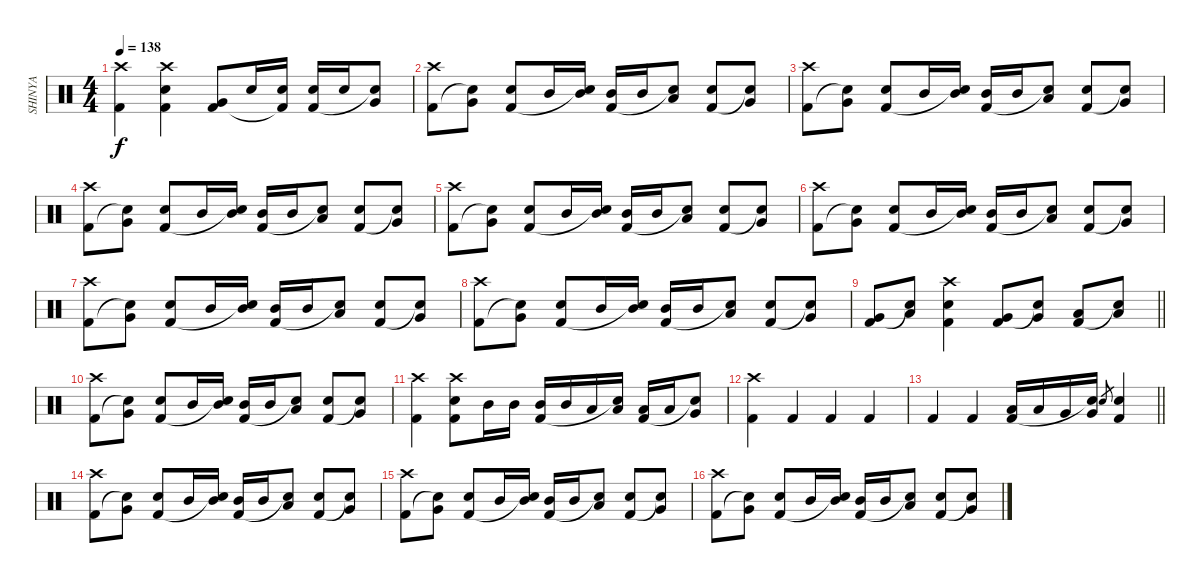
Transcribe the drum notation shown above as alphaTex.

\track ("SHINYA" "SHINYA") {instrument percussion}
\staff {score}
\articulation defaults
\ts (4 4)
\tempo 138
\clef neutral
\ks c
("Crash high (hit)" "Kick (hit) 2").4{dy f} ("Crash high (hit)" "Electric Snare (hit)" "Kick (hit) 2").4 ("Very Low Tom (hit)" "Kick (hit) 2").8 "Electric Snare (hit)".16 ("Electric Snare (hit)" "Kick (hit) 2"{t}).16 ("Electric Snare (hit)" "Kick (hit) 2").16 "Electric Snare (hit)".16 ("Very Low Tom (hit)" "Snare (hit)"{t}).8 |
("Crash high (hit)" "Kick (hit) 2").8 ("Very Low Tom (hit)" "Snare (hit)"{t}).8 ("Electric Snare (hit)" "Kick (hit) 2").8 "Mid Tom (hit)".16 ("Mid Tom (hit)" "Snare (hit)"{t}).16 ("Mid Tom (hit)" "Kick (hit) 2").16 "Mid Tom (hit)".16 ("Low Tom (hit)" "Snare (hit)"{t}).8 ("Electric Snare (hit)" "Kick (hit) 2").8 ("Very Low Tom (hit)" "Snare (hit)"{t}).8 |
("Crash high (hit)" "Kick (hit) 2").8 ("Very Low Tom (hit)" "Snare (hit)"{t}).8 ("Electric Snare (hit)" "Kick (hit) 2").8 "Mid Tom (hit)".16 ("Mid Tom (hit)" "Snare (hit)"{t}).16 ("Mid Tom (hit)" "Kick (hit) 2").16 "Mid Tom (hit)".16 ("Low Tom (hit)" "Snare (hit)"{t}).8 ("Electric Snare (hit)" "Kick (hit) 2").8 ("Very Low Tom (hit)" "Snare (hit)"{t}).8 |
("Crash high (hit)" "Kick (hit) 2").8 ("Very Low Tom (hit)" "Snare (hit)"{t}).8 ("Electric Snare (hit)" "Kick (hit) 2").8 "Mid Tom (hit)".16 ("Mid Tom (hit)" "Snare (hit)"{t}).16 ("Mid Tom (hit)" "Kick (hit) 2").16 "Mid Tom (hit)".16 ("Low Tom (hit)" "Snare (hit)"{t}).8 ("Electric Snare (hit)" "Kick (hit) 2").8 ("Very Low Tom (hit)" "Snare (hit)"{t}).8 |
("Crash high (hit)" "Kick (hit) 2").8 ("Very Low Tom (hit)" "Snare (hit)"{t}).8 ("Electric Snare (hit)" "Kick (hit) 2").8 "Mid Tom (hit)".16 ("Mid Tom (hit)" "Snare (hit)"{t}).16 ("Mid Tom (hit)" "Kick (hit) 2").16 "Mid Tom (hit)".16 ("Low Tom (hit)" "Snare (hit)"{t}).8 ("Electric Snare (hit)" "Kick (hit) 2").8 ("Very Low Tom (hit)" "Snare (hit)"{t}).8 |
("Crash high (hit)" "Kick (hit) 2").8 ("Very Low Tom (hit)" "Snare (hit)"{t}).8 ("Electric Snare (hit)" "Kick (hit) 2").8 "Mid Tom (hit)".16 ("Mid Tom (hit)" "Snare (hit)"{t}).16 ("Mid Tom (hit)" "Kick (hit) 2").16 "Mid Tom (hit)".16 ("Low Tom (hit)" "Snare (hit)"{t}).8 ("Electric Snare (hit)" "Kick (hit) 2").8 ("Very Low Tom (hit)" "Snare (hit)"{t}).8 |
("Crash high (hit)" "Kick (hit) 2").8 ("Very Low Tom (hit)" "Snare (hit)"{t}).8 ("Electric Snare (hit)" "Kick (hit) 2").8 "Mid Tom (hit)".16 ("Mid Tom (hit)" "Snare (hit)"{t}).16 ("Mid Tom (hit)" "Kick (hit) 2").16 "Mid Tom (hit)".16 ("Low Tom (hit)" "Snare (hit)"{t}).8 ("Electric Snare (hit)" "Kick (hit) 2").8 ("Very Low Tom (hit)" "Snare (hit)"{t}).8 |
("Crash high (hit)" "Kick (hit) 2").8 ("Very Low Tom (hit)" "Snare (hit)"{t}).8 ("Electric Snare (hit)" "Kick (hit) 2").8 "Mid Tom (hit)".16 ("Mid Tom (hit)" "Snare (hit)"{t}).16 ("Mid Tom (hit)" "Kick (hit) 2").16 "Mid Tom (hit)".16 ("Low Tom (hit)" "Snare (hit)"{t}).8 ("Electric Snare (hit)" "Kick (hit) 2").8 ("Very Low Tom (hit)" "Snare (hit)"{t}).8 |
\barLineRight lightlight
("Very Low Tom (hit)" "Kick (hit) 2").8 ("Low Floor Tom (hit)" "Snare (hit)"{t}).8 ("Crash high (hit)" "Electric Snare (hit)" "Kick (hit) 2").4 ("Very Low Tom (hit)" "Kick (hit) 2").8 ("Very Low Tom (hit)" "Snare (hit)"{t}).8 ("Low Floor Tom (hit)" "Kick (hit) 2").8 ("Low Floor Tom (hit)" "Snare (hit)"{t}).8 |
("Crash high (hit)" "Kick (hit) 2").8 ("Very Low Tom (hit)" "Snare (hit)"{t}).8 ("Electric Snare (hit)" "Kick (hit) 2").8 "Mid Tom (hit)".16 ("Mid Tom (hit)" "Snare (hit)"{t}).16 ("Mid Tom (hit)" "Kick (hit) 2").16 "Mid Tom (hit)".16 ("Low Tom (hit)" "Snare (hit)"{t}).8 ("Electric Snare (hit)" "Kick (hit) 2").8 ("Very Low Tom (hit)" "Snare (hit)"{t}).8 |
("Crash high (hit)" "Kick (hit) 2").4 ("Crash high (hit)" "Electric Snare (hit)" "Kick (hit) 2").8 "Mid Tom (hit)".16 "Mid Tom (hit)".16 ("Mid Tom (hit)" "Kick (hit) 2").16 "Mid Tom (hit)".16 "Low Tom (hit)".16 ("Low Tom (hit)" "Snare (hit)"{t}).16 ("Low Tom (hit)" "Kick (hit) 2").16 "Low Tom (hit)".16 ("Very Low Tom (hit)" "Snare (hit)"{t}).8 |
("Crash high (hit)" "Kick (hit) 2").4 "Kick (hit) 2".4 "Kick (hit) 2".4 "Kick (hit) 2".4 |
\barLineRight lightlight "Kick (hit) 2".4 "Kick (hit) 2".4
("Low Tom (hit)" "Kick (hit) 2").16 "Low Tom (hit)".16 "Very Low Tom (hit)".16 ("Very Low Tom (hit)" "Snare (hit)"{t}).16 "Electric Snare (hit)".8{gr} ("Electric Snare (hit)" "Kick (hit) 2").4 |
("Crash high (hit)" "Kick (hit) 2").8 ("Very Low Tom (hit)" "Snare (hit)"{t}).8 ("Electric Snare (hit)" "Kick (hit) 2").8 "Mid Tom (hit)".16 ("Mid Tom (hit)" "Snare (hit)"{t}).16 ("Mid Tom (hit)" "Kick (hit) 2").16 "Mid Tom (hit)".16 ("Low Tom (hit)" "Snare (hit)"{t}).8 ("Electric Snare (hit)" "Kick (hit) 2").8 ("Very Low Tom (hit)" "Snare (hit)"{t}).8 |
("Crash high (hit)" "Kick (hit) 2").8 ("Very Low Tom (hit)" "Snare (hit)"{t}).8 ("Electric Snare (hit)" "Kick (hit) 2").8 "Mid Tom (hit)".16 ("Mid Tom (hit)" "Snare (hit)"{t}).16 ("Mid Tom (hit)" "Kick (hit) 2").16 "Mid Tom (hit)".16 ("Low Tom (hit)" "Snare (hit)"{t}).8 ("Electric Snare (hit)" "Kick (hit) 2").8 ("Very Low Tom (hit)" "Snare (hit)"{t}).8 |
("Crash high (hit)" "Kick (hit) 2").8 ("Very Low Tom (hit)" "Snare (hit)"{t}).8 ("Electric Snare (hit)" "Kick (hit) 2").8 "Mid Tom (hit)".16 ("Mid Tom (hit)" "Snare (hit)"{t}).16 ("Mid Tom (hit)" "Kick (hit) 2").16 "Mid Tom (hit)".16 ("Low Tom (hit)" "Snare (hit)"{t}).8 ("Electric Snare (hit)" "Kick (hit) 2").8 ("Very Low Tom (hit)" "Snare (hit)"{t}).8
